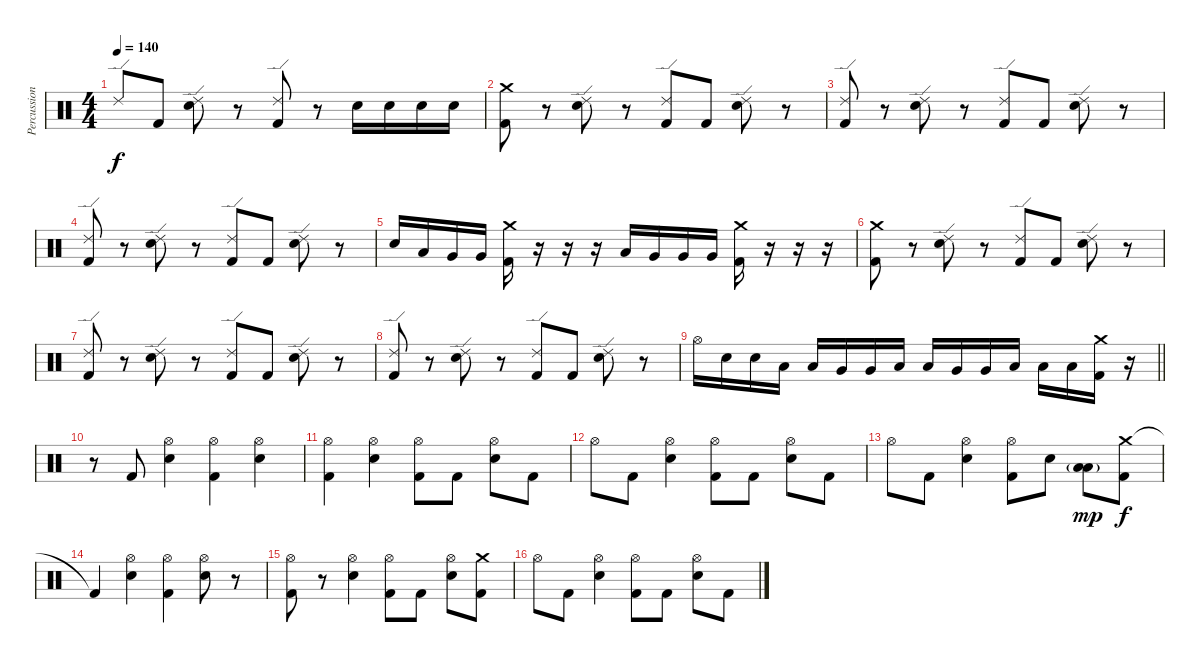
\track ("Percussion" "Percussion") {instrument percussion}
\staff {score}
\articulation defaults
\ts (4 4)
\tempo 140
\clef neutral
\ks c "Ride (edge) 2".8{dy f} "Kick (hit) 2".8
("Ride (edge) 2" "Electric Snare (hit)").8 r.8 ("Ride (edge) 2" "Kick (hit) 2").8 r.8 "Electric Snare (hit)".16 "Electric Snare (hit)".16 "Electric Snare (hit)".16 "Electric Snare (hit)".16 |
("Crash medium (hit)" "Kick (hit) 2").8 r.8 ("Ride (edge) 2" "Electric Snare (hit)").8 r.8 ("Ride (edge) 2" "Kick (hit) 2").8 "Kick (hit) 2".8 ("Ride (edge) 2" "Electric Snare (hit)").8 r.8 |
("Ride (edge) 2" "Kick (hit) 2").8 r.8 ("Ride (edge) 2" "Electric Snare (hit)").8 r.8 ("Ride (edge) 2" "Kick (hit) 2").8 "Kick (hit) 2".8 ("Ride (edge) 2" "Electric Snare (hit)").8 r.8 |
("Ride (edge) 2" "Kick (hit) 2").8 r.8 ("Ride (edge) 2" "Electric Snare (hit)").8 r.8 ("Ride (edge) 2" "Kick (hit) 2").8 "Kick (hit) 2".8 ("Ride (edge) 2" "Electric Snare (hit)").8 r.8 |
"Electric Snare (hit)".16 "Low Tom (hit)".16 "Very Low Tom (hit)".16 "Very Low Tom (hit)".16 ("Crash medium (hit)" "Kick (hit) 2").16 r.16 r.16 r.16 "Low Tom (hit)".16 "Very Low Tom (hit)".16 "Very Low Tom (hit)".16 "Very Low Tom (hit)".16 ("Crash medium (hit)" "Kick (hit) 2").16 r.16 r.16 r.16 |
("Crash medium (hit)" "Kick (hit) 2").8 r.8 ("Ride (edge) 2" "Electric Snare (hit)").8 r.8 ("Ride (edge) 2" "Kick (hit) 2").8 "Kick (hit) 2".8 ("Ride (edge) 2" "Electric Snare (hit)").8 r.8 |
("Ride (edge) 2" "Kick (hit) 2").8 r.8 ("Ride (edge) 2" "Electric Snare (hit)").8 r.8 ("Ride (edge) 2" "Kick (hit) 2").8 "Kick (hit) 2".8 ("Ride (edge) 2" "Electric Snare (hit)").8 r.8 |
("Ride (edge) 2" "Kick (hit) 2").8 r.8 ("Ride (edge) 2" "Electric Snare (hit)").8 r.8 ("Ride (edge) 2" "Kick (hit) 2").8 "Kick (hit) 2".8 ("Ride (edge) 2" "Electric Snare (hit)").8 r.8 |
\barLineRight lightlight "Hi-Hat (open)".16 "Electric Snare (hit)".16 "Electric Snare (hit)".16 "Low Tom (hit)".16 "Low Tom (hit)".16 "Very Low Tom (hit)".16 "Very Low Tom (hit)".16 "Low Floor Tom (hit)".16 "Low Floor Tom (hit)".16 "Very Low Tom (hit)".16 "Very Low Tom (hit)".16 "Low Floor Tom (hit)".16 "Low Floor Tom (hit)".16 "Low Floor Tom (hit)".16
("Crash medium (hit)" "Kick (hit) 2").16 r.16 |
\section ("" "")
r.8 "Kick (hit) 2".8 ("Hi-Hat (open)" "Electric Snare (hit)").4 ("Hi-Hat (open)" "Kick (hit) 2").4 ("Hi-Hat (open)" "Electric Snare (hit)").4 |
("Hi-Hat (open)" "Kick (hit) 2").4 ("Hi-Hat (open)" "Electric Snare (hit)").4 ("Hi-Hat (open)" "Kick (hit) 2").8 "Kick (hit) 2".8 ("Hi-Hat (open)" "Electric Snare (hit)").8 "Kick (hit) 2".8 |
"Hi-Hat (open)".8 "Kick (hit) 2".8 ("Hi-Hat (open)" "Electric Snare (hit)").4 ("Hi-Hat (open)" "Kick (hit) 2").8 "Kick (hit) 2".8 ("Hi-Hat (open)" "Electric Snare (hit)").8 "Kick (hit) 2".8 |
"Hi-Hat (open)".8 "Kick (hit) 2".8 ("Hi-Hat (open)" "Electric Snare (hit)").4 ("Hi-Hat (open)" "Kick (hit) 2").8 "Electric Snare (hit)".8 ("Low Tom (hit)"{g} "Low Tom (hit)").8{dy mp} ("Crash medium (hit)" "Kick (hit) 2").8{dy f} |
"Kick (hit) 2"{t}.4 ("Hi-Hat (open)" "Electric Snare (hit)").4 ("Hi-Hat (open)" "Kick (hit) 2").4 ("Hi-Hat (open)" "Electric Snare (hit)").8 r.8 |
("Hi-Hat (open)" "Kick (hit) 2").8 r.8 ("Hi-Hat (open)" "Electric Snare (hit)").4 ("Hi-Hat (open)" "Kick (hit) 2").8 "Kick (hit) 2".8 ("Hi-Hat (open)" "Electric Snare (hit)").8 ("Crash medium (hit)" "Kick (hit) 2").8 |
"Hi-Hat (open)".8 "Kick (hit) 2".8 ("Hi-Hat (open)" "Electric Snare (hit)").4 ("Hi-Hat (open)" "Kick (hit) 2").8 "Kick (hit) 2".8 ("Hi-Hat (open)" "Electric Snare (hit)").8 "Kick (hit) 2".8
